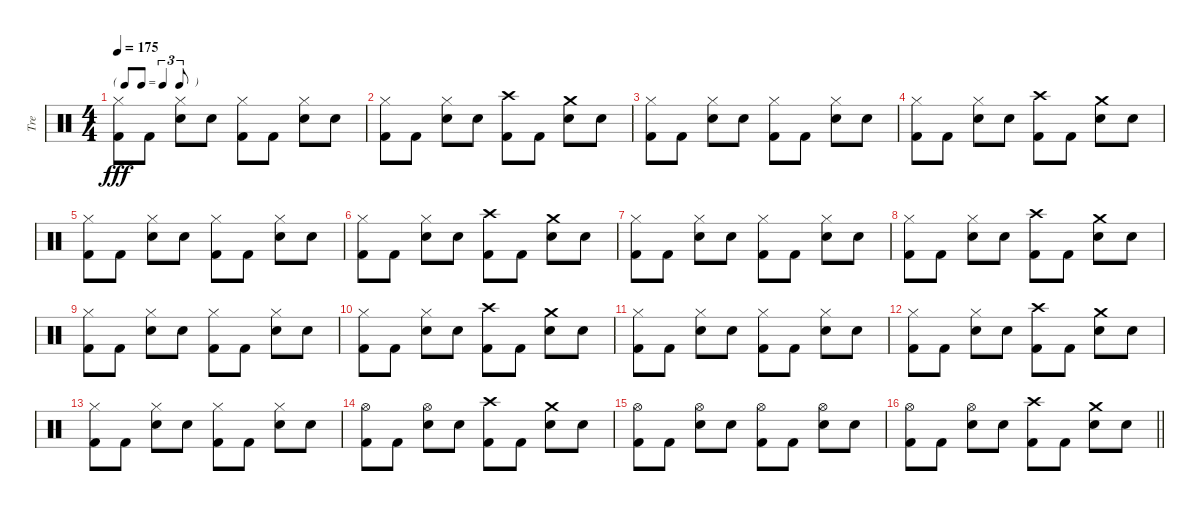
\track ("Tre" "Tre") {instrument percussion}
\staff {score}
\articulation defaults
\ts (4 4)
\tf triplet8th
\tempo 175
\clef neutral
\ks c
("Hi-Hat (closed)" "Kick (hit) 2").8{dy fff} "Kick (hit) 2".8 ("Hi-Hat (closed)" "Snare (hit) 2").8 "Snare (hit) 2".8 ("Hi-Hat (closed)" "Kick (hit) 2").8 "Kick (hit) 2".8 ("Hi-Hat (closed)" "Snare (hit) 2").8 "Snare (hit) 2".8 |
("Hi-Hat (closed)" "Kick (hit) 2").8 "Kick (hit) 2".8 ("Hi-Hat (closed)" "Snare (hit) 2").8 "Snare (hit) 2".8 ("Crash high (hit)" "Kick (hit) 2").8 "Kick (hit) 2".8 ("Crash medium (hit)" "Snare (hit) 2").8 "Snare (hit) 2".8 |
("Hi-Hat (closed)" "Kick (hit) 2").8 "Kick (hit) 2".8 ("Hi-Hat (closed)" "Snare (hit) 2").8 "Snare (hit) 2".8 ("Hi-Hat (closed)" "Kick (hit) 2").8 "Kick (hit) 2".8 ("Hi-Hat (closed)" "Snare (hit) 2").8 "Snare (hit) 2".8 |
("Hi-Hat (closed)" "Kick (hit) 2").8 "Kick (hit) 2".8 ("Hi-Hat (closed)" "Snare (hit) 2").8 "Snare (hit) 2".8 ("Crash high (hit)" "Kick (hit) 2").8 "Kick (hit) 2".8 ("Crash medium (hit)" "Snare (hit) 2").8 "Snare (hit) 2".8 |
("Hi-Hat (closed)" "Kick (hit) 2").8 "Kick (hit) 2".8 ("Hi-Hat (closed)" "Snare (hit) 2").8 "Snare (hit) 2".8 ("Hi-Hat (closed)" "Kick (hit) 2").8 "Kick (hit) 2".8 ("Hi-Hat (closed)" "Snare (hit) 2").8 "Snare (hit) 2".8 |
("Hi-Hat (closed)" "Kick (hit) 2").8 "Kick (hit) 2".8 ("Hi-Hat (closed)" "Snare (hit) 2").8 "Snare (hit) 2".8 ("Crash high (hit)" "Kick (hit) 2").8 "Kick (hit) 2".8 ("Crash medium (hit)" "Snare (hit) 2").8 "Snare (hit) 2".8 |
("Hi-Hat (closed)" "Kick (hit) 2").8 "Kick (hit) 2".8 ("Hi-Hat (closed)" "Snare (hit) 2").8 "Snare (hit) 2".8 ("Hi-Hat (closed)" "Kick (hit) 2").8 "Kick (hit) 2".8 ("Hi-Hat (closed)" "Snare (hit) 2").8 "Snare (hit) 2".8 |
("Hi-Hat (closed)" "Kick (hit) 2").8 "Kick (hit) 2".8 ("Hi-Hat (closed)" "Snare (hit) 2").8 "Snare (hit) 2".8 ("Crash high (hit)" "Kick (hit) 2").8 "Kick (hit) 2".8 ("Crash medium (hit)" "Snare (hit) 2").8 "Snare (hit) 2".8 |
("Hi-Hat (closed)" "Kick (hit) 2").8 "Kick (hit) 2".8 ("Hi-Hat (closed)" "Snare (hit) 2").8 "Snare (hit) 2".8 ("Hi-Hat (closed)" "Kick (hit) 2").8 "Kick (hit) 2".8 ("Hi-Hat (closed)" "Snare (hit) 2").8 "Snare (hit) 2".8 |
("Hi-Hat (closed)" "Kick (hit) 2").8 "Kick (hit) 2".8 ("Hi-Hat (closed)" "Snare (hit) 2").8 "Snare (hit) 2".8 ("Crash high (hit)" "Kick (hit) 2").8 "Kick (hit) 2".8 ("Crash medium (hit)" "Snare (hit) 2").8 "Snare (hit) 2".8 |
("Hi-Hat (closed)" "Kick (hit) 2").8 "Kick (hit) 2".8 ("Hi-Hat (closed)" "Snare (hit) 2").8 "Snare (hit) 2".8 ("Hi-Hat (closed)" "Kick (hit) 2").8 "Kick (hit) 2".8 ("Hi-Hat (closed)" "Snare (hit) 2").8 "Snare (hit) 2".8 |
("Hi-Hat (closed)" "Kick (hit) 2").8 "Kick (hit) 2".8 ("Hi-Hat (closed)" "Snare (hit) 2").8 "Snare (hit) 2".8 ("Crash high (hit)" "Kick (hit) 2").8 "Kick (hit) 2".8 ("Crash medium (hit)" "Snare (hit) 2").8 "Snare (hit) 2".8 |
("Hi-Hat (closed)" "Kick (hit) 2").8 "Kick (hit) 2".8 ("Hi-Hat (closed)" "Snare (hit) 2").8 "Snare (hit) 2".8 ("Hi-Hat (closed)" "Kick (hit) 2").8 "Kick (hit) 2".8 ("Hi-Hat (closed)" "Snare (hit) 2").8 "Snare (hit) 2".8 |
("Hi-Hat (open)" "Kick (hit) 2").8 "Kick (hit) 2".8 ("Hi-Hat (open)" "Snare (hit) 2").8 "Snare (hit) 2".8 ("Crash high (hit)" "Kick (hit) 2").8 "Kick (hit) 2".8 ("Crash medium (hit)" "Snare (hit) 2").8 "Snare (hit) 2".8 |
("Hi-Hat (open)" "Kick (hit) 2").8 "Kick (hit) 2".8 ("Hi-Hat (open)" "Snare (hit) 2").8 "Snare (hit) 2".8 ("Hi-Hat (open)" "Kick (hit) 2").8 "Kick (hit) 2".8 ("Hi-Hat (open)" "Snare (hit) 2").8 "Snare (hit) 2".8 |
\barLineRight lightlight
("Hi-Hat (open)" "Kick (hit) 2").8 "Kick (hit) 2".8 ("Hi-Hat (open)" "Snare (hit) 2").8 "Snare (hit) 2".8 ("Crash high (hit)" "Kick (hit) 2").8 "Kick (hit) 2".8 ("Crash medium (hit)" "Snare (hit) 2").8 "Snare (hit) 2".8
